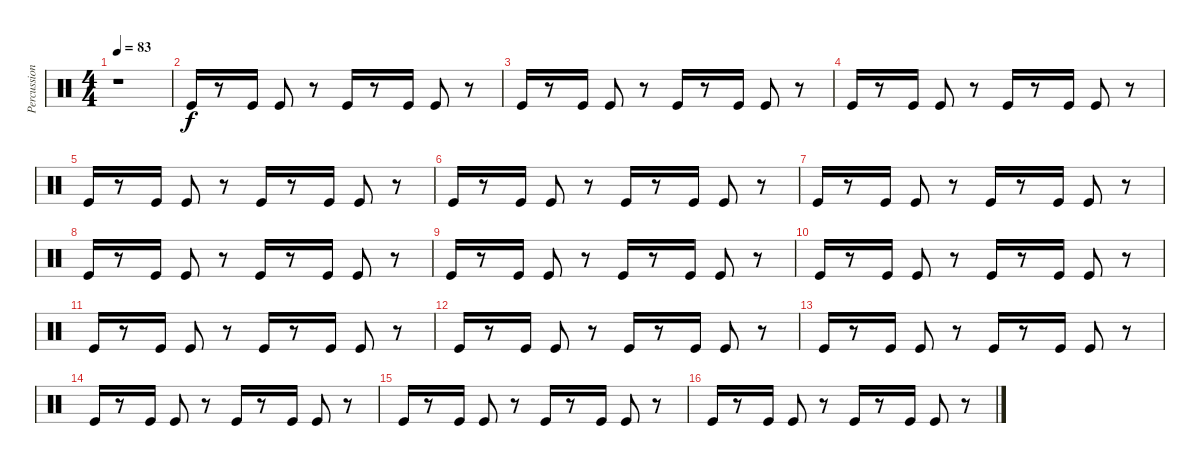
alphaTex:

\track ("Percussion" "Percussion") {instrument percussion}
\staff {score}
\articulation defaults
\ts (4 4)
\tempo 83
\clef neutral
\ks c
r.1{dy f} |
"Kick (hit)".16 r.8 "Kick (hit)".16 "Kick (hit)".8 r.8 "Kick (hit)".16 r.8 "Kick (hit)".16 "Kick (hit)".8 r.8 |
"Kick (hit)".16 r.8 "Kick (hit)".16 "Kick (hit)".8 r.8 "Kick (hit)".16 r.8 "Kick (hit)".16 "Kick (hit)".8 r.8 |
"Kick (hit)".16 r.8 "Kick (hit)".16 "Kick (hit)".8 r.8 "Kick (hit)".16 r.8 "Kick (hit)".16 "Kick (hit)".8 r.8 |
"Kick (hit)".16 r.8 "Kick (hit)".16 "Kick (hit)".8 r.8 "Kick (hit)".16 r.8 "Kick (hit)".16 "Kick (hit)".8 r.8 |
"Kick (hit)".16 r.8 "Kick (hit)".16 "Kick (hit)".8 r.8 "Kick (hit)".16 r.8 "Kick (hit)".16 "Kick (hit)".8 r.8 |
"Kick (hit)".16 r.8 "Kick (hit)".16 "Kick (hit)".8 r.8 "Kick (hit)".16 r.8 "Kick (hit)".16 "Kick (hit)".8 r.8 |
"Kick (hit)".16 r.8 "Kick (hit)".16 "Kick (hit)".8 r.8 "Kick (hit)".16 r.8 "Kick (hit)".16 "Kick (hit)".8 r.8 |
"Kick (hit)".16 r.8 "Kick (hit)".16 "Kick (hit)".8 r.8 "Kick (hit)".16 r.8 "Kick (hit)".16 "Kick (hit)".8 r.8 |
"Kick (hit)".16 r.8 "Kick (hit)".16 "Kick (hit)".8 r.8 "Kick (hit)".16 r.8 "Kick (hit)".16 "Kick (hit)".8 r.8 |
"Kick (hit)".16 r.8 "Kick (hit)".16 "Kick (hit)".8 r.8 "Kick (hit)".16 r.8 "Kick (hit)".16 "Kick (hit)".8 r.8 |
"Kick (hit)".16 r.8 "Kick (hit)".16 "Kick (hit)".8 r.8 "Kick (hit)".16 r.8 "Kick (hit)".16 "Kick (hit)".8 r.8 |
"Kick (hit)".16 r.8 "Kick (hit)".16 "Kick (hit)".8 r.8 "Kick (hit)".16 r.8 "Kick (hit)".16 "Kick (hit)".8 r.8 |
"Kick (hit)".16 r.8 "Kick (hit)".16 "Kick (hit)".8 r.8 "Kick (hit)".16 r.8 "Kick (hit)".16 "Kick (hit)".8 r.8 |
"Kick (hit)".16 r.8 "Kick (hit)".16 "Kick (hit)".8 r.8 "Kick (hit)".16 r.8 "Kick (hit)".16 "Kick (hit)".8 r.8 |
"Kick (hit)".16 r.8 "Kick (hit)".16 "Kick (hit)".8 r.8 "Kick (hit)".16 r.8 "Kick (hit)".16 "Kick (hit)".8 r.8
